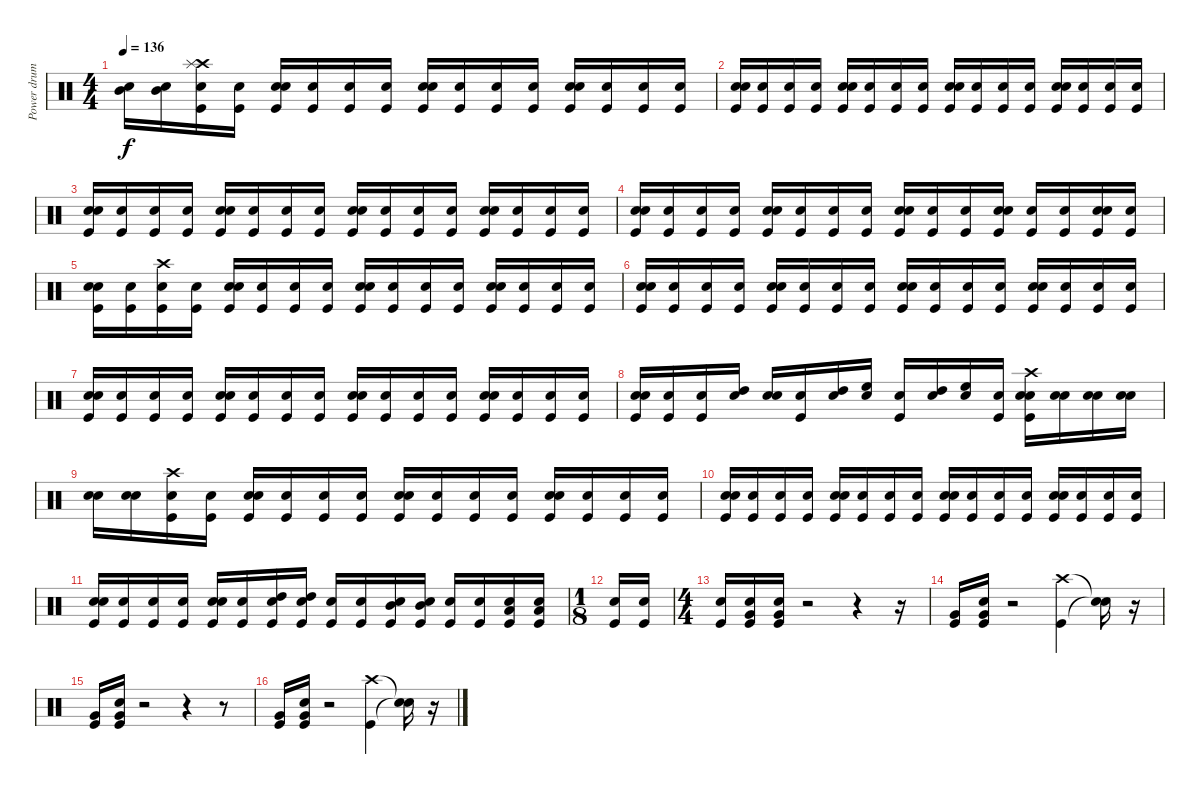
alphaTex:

\track ("Power drums" "Power drum") {instrument percussion}
\staff {score}
\articulation defaults
\ts (4 4)
\tempo 136
\clef neutral
\ks c
("Snare (hit)" "Mid Tom (hit)").16{dy f} ("Snare (hit)" "Mid Tom (hit)").16 ("Snare (hit)" "Kick (hit)" "Crash high (hit)" "Splash (hit)").16 ("Snare (hit)" "Kick (hit)").16 ("Snare (hit)" "Kick (hit)" "Snare (hit) 2").16 ("Snare (hit)" "Kick (hit)").16 ("Snare (hit)" "Kick (hit)").16 ("Snare (hit)" "Kick (hit)").16 ("Snare (hit)" "Kick (hit)" "Snare (hit) 2").16 ("Snare (hit)" "Kick (hit)").16 ("Snare (hit)" "Kick (hit)").16 ("Snare (hit)" "Kick (hit)").16 ("Snare (hit)" "Kick (hit)" "Snare (hit) 2").16 ("Snare (hit)" "Kick (hit)").16 ("Snare (hit)" "Kick (hit)").16 ("Snare (hit)" "Kick (hit)").16 |
("Snare (hit)" "Kick (hit)" "Snare (hit) 2").16 ("Snare (hit)" "Kick (hit)").16 ("Snare (hit)" "Kick (hit)").16 ("Snare (hit)" "Kick (hit)").16 ("Snare (hit)" "Kick (hit)" "Snare (hit) 2").16 ("Snare (hit)" "Kick (hit)").16 ("Snare (hit)" "Kick (hit)").16 ("Snare (hit)" "Kick (hit)").16 ("Snare (hit)" "Kick (hit)" "Snare (hit) 2").16 ("Snare (hit)" "Kick (hit)").16 ("Snare (hit)" "Kick (hit)").16 ("Snare (hit)" "Kick (hit)").16 ("Snare (hit)" "Kick (hit)" "Snare (hit) 2").16 ("Snare (hit)" "Kick (hit)").16 ("Snare (hit)" "Kick (hit)").16 ("Snare (hit)" "Kick (hit)").16 |
("Snare (hit)" "Kick (hit)" "Snare (hit) 2").16 ("Snare (hit)" "Kick (hit)").16 ("Snare (hit)" "Kick (hit)").16 ("Snare (hit)" "Kick (hit)").16 ("Snare (hit)" "Kick (hit)" "Snare (hit) 2").16 ("Snare (hit)" "Kick (hit)").16 ("Snare (hit)" "Kick (hit)").16 ("Snare (hit)" "Kick (hit)").16 ("Snare (hit)" "Kick (hit)" "Snare (hit) 2").16 ("Snare (hit)" "Kick (hit)").16 ("Snare (hit)" "Kick (hit)").16 ("Snare (hit)" "Kick (hit)").16 ("Snare (hit)" "Kick (hit)" "Snare (hit) 2").16 ("Snare (hit)" "Kick (hit)").16 ("Snare (hit)" "Kick (hit)").16 ("Snare (hit)" "Kick (hit)").16 |
("Snare (hit)" "Kick (hit)" "Snare (hit) 2").16 ("Snare (hit)" "Kick (hit)").16 ("Snare (hit)" "Kick (hit)").16 ("Snare (hit)" "Kick (hit)").16 ("Snare (hit)" "Kick (hit)" "Snare (hit) 2").16 ("Snare (hit)" "Kick (hit)").16 ("Snare (hit)" "Kick (hit)").16 ("Snare (hit)" "Kick (hit)").16 ("Snare (hit)" "Kick (hit)" "Snare (hit) 2").16 ("Snare (hit)" "Kick (hit)").16 ("Snare (hit)" "Kick (hit)").16 ("Snare (hit)" "Kick (hit)" "Snare (hit) 2").16 ("Snare (hit)" "Kick (hit)").16 ("Snare (hit)" "Kick (hit)").16 ("Snare (hit)" "Kick (hit)" "Snare (hit) 2").16 ("Snare (hit)" "Kick (hit)").16 |
("Snare (hit)" "Kick (hit)" "Snare (hit) 2").16 ("Snare (hit)" "Kick (hit)").16 ("Snare (hit)" "Kick (hit)" "Crash high (hit)").16 ("Snare (hit)" "Kick (hit)").16 ("Snare (hit)" "Kick (hit)" "Snare (hit) 2").16 ("Snare (hit)" "Kick (hit)").16 ("Snare (hit)" "Kick (hit)").16 ("Snare (hit)" "Kick (hit)").16 ("Snare (hit)" "Kick (hit)" "Snare (hit) 2").16 ("Snare (hit)" "Kick (hit)").16 ("Snare (hit)" "Kick (hit)").16 ("Snare (hit)" "Kick (hit)").16 ("Snare (hit)" "Kick (hit)" "Snare (hit) 2").16 ("Snare (hit)" "Kick (hit)").16 ("Snare (hit)" "Kick (hit)").16 ("Snare (hit)" "Kick (hit)").16 |
("Snare (hit)" "Kick (hit)" "Snare (hit) 2").16 ("Snare (hit)" "Kick (hit)").16 ("Snare (hit)" "Kick (hit)").16 ("Snare (hit)" "Kick (hit)").16 ("Snare (hit)" "Kick (hit)" "Snare (hit) 2").16 ("Snare (hit)" "Kick (hit)").16 ("Snare (hit)" "Kick (hit)").16 ("Snare (hit)" "Kick (hit)").16 ("Snare (hit)" "Kick (hit)" "Snare (hit) 2").16 ("Snare (hit)" "Kick (hit)").16 ("Snare (hit)" "Kick (hit)").16 ("Snare (hit)" "Kick (hit)").16 ("Snare (hit)" "Kick (hit)" "Snare (hit) 2").16 ("Snare (hit)" "Kick (hit)").16 ("Snare (hit)" "Kick (hit)").16 ("Snare (hit)" "Kick (hit)").16 |
("Snare (hit)" "Kick (hit)" "Snare (hit) 2").16 ("Snare (hit)" "Kick (hit)").16 ("Snare (hit)" "Kick (hit)").16 ("Snare (hit)" "Kick (hit)").16 ("Snare (hit)" "Kick (hit)" "Snare (hit) 2").16 ("Snare (hit)" "Kick (hit)").16 ("Snare (hit)" "Kick (hit)").16 ("Snare (hit)" "Kick (hit)").16 ("Snare (hit)" "Kick (hit)" "Snare (hit) 2").16 ("Snare (hit)" "Kick (hit)").16 ("Snare (hit)" "Kick (hit)").16 ("Snare (hit)" "Kick (hit)").16 ("Snare (hit)" "Kick (hit)" "Snare (hit) 2").16 ("Snare (hit)" "Kick (hit)").16 ("Snare (hit)" "Kick (hit)").16 ("Snare (hit)" "Kick (hit)").16 |
("Snare (hit)" "Kick (hit)" "Snare (hit) 2").16 ("Snare (hit)" "Kick (hit)").16 ("Snare (hit)" "Kick (hit)").16 ("Snare (hit)" "High Tom (hit)").16 ("Snare (hit)" "Snare (hit) 2").16 ("Snare (hit)" "Kick (hit)").16 ("Snare (hit)" "High Tom (hit)").16 ("Snare (hit)" "High Floor Tom (hit)").16 ("Snare (hit)" "Kick (hit)").16 ("Snare (hit)" "High Tom (hit)").16 ("Snare (hit)" "High Floor Tom (hit)").16 ("Snare (hit)" "Kick (hit)").16 ("Snare (hit)" "Kick (hit)" "Snare (hit) 2" "Crash high (hit)").16 ("Snare (hit)" "Snare (hit) 2").16 ("Snare (hit)" "Snare (hit) 2").16 ("Snare (hit)" "Snare (hit) 2").16 |
("Snare (hit)" "Snare (hit) 2").16 ("Snare (hit)" "Snare (hit) 2").16 ("Snare (hit)" "Kick (hit)" "Crash high (hit)").16 ("Snare (hit)" "Kick (hit)").16 ("Snare (hit)" "Kick (hit)" "Snare (hit) 2").16 ("Snare (hit)" "Kick (hit)").16 ("Snare (hit)" "Kick (hit)").16 ("Snare (hit)" "Kick (hit)").16 ("Snare (hit)" "Kick (hit)" "Snare (hit) 2").16 ("Snare (hit)" "Kick (hit)").16 ("Snare (hit)" "Kick (hit)").16 ("Snare (hit)" "Kick (hit)").16 ("Snare (hit)" "Kick (hit)" "Snare (hit) 2").16 ("Snare (hit)" "Kick (hit)").16 ("Snare (hit)" "Kick (hit)").16 ("Snare (hit)" "Kick (hit)").16 |
("Snare (hit)" "Kick (hit)" "Snare (hit) 2").16 ("Snare (hit)" "Kick (hit)").16 ("Snare (hit)" "Kick (hit)").16 ("Snare (hit)" "Kick (hit)").16 ("Snare (hit)" "Kick (hit)" "Snare (hit) 2").16 ("Snare (hit)" "Kick (hit)").16 ("Snare (hit)" "Kick (hit)").16 ("Snare (hit)" "Kick (hit)").16 ("Snare (hit)" "Kick (hit)" "Snare (hit) 2").16 ("Snare (hit)" "Kick (hit)").16 ("Snare (hit)" "Kick (hit)").16 ("Snare (hit)" "Kick (hit)").16 ("Snare (hit)" "Kick (hit)" "Snare (hit) 2").16 ("Snare (hit)" "Kick (hit)").16 ("Snare (hit)" "Kick (hit)").16 ("Snare (hit)" "Kick (hit)").16 |
("Snare (hit)" "Kick (hit)" "Snare (hit) 2").16 ("Snare (hit)" "Kick (hit)").16 ("Snare (hit)" "Kick (hit)").16 ("Snare (hit)" "Kick (hit)").16 ("Snare (hit)" "Kick (hit)" "Snare (hit) 2").16 ("Snare (hit)" "Kick (hit)").16 ("Snare (hit)" "Kick (hit)" "High Tom (hit)").16 ("Snare (hit)" "Kick (hit)" "High Tom (hit)").16 ("Snare (hit)" "Kick (hit)").16 ("Snare (hit)" "Kick (hit)").16 ("Snare (hit)" "Kick (hit)" "Mid Tom (hit)").16 ("Snare (hit)" "Kick (hit)" "Mid Tom (hit)").16 ("Snare (hit)" "Kick (hit)").16 ("Snare (hit)" "Kick (hit)").16 ("Snare (hit)" "Kick (hit)" "Low Tom (hit)").16 ("Snare (hit)" "Kick (hit)" "Low Tom (hit)").16 |
\ts (1 8)
("Snare (hit)" "Kick (hit)").16 ("Snare (hit)" "Kick (hit)").16 |
\ts (4 4)
("Snare (hit)" "Kick (hit)").16 ("Snare (hit)" "Kick (hit)" "Very Low Tom (hit)").16 ("Snare (hit)" "Kick (hit)" "Very Low Tom (hit)").16 r.2 r.4 r.16 |
("Kick (hit)" "Very Low Tom (hit)").16 ("Snare (hit)" "Kick (hit)" "Very Low Tom (hit)").16 r.2 ("Kick (hit)" "Crash high (hit)").4 ("Snare (hit)"{t} "Snare (hit)"{t}).16 r.16 |
("Kick (hit)" "Very Low Tom (hit)").16 ("Snare (hit)" "Kick (hit)" "Very Low Tom (hit)").16 r.2 r.4 r.8 |
("Kick (hit)" "Very Low Tom (hit)").16 ("Snare (hit)" "Kick (hit)" "Very Low Tom (hit)").16 r.2 ("Kick (hit)" "Crash high (hit)").4 ("Snare (hit)"{t} "Snare (hit)"{t}).16 r.16
